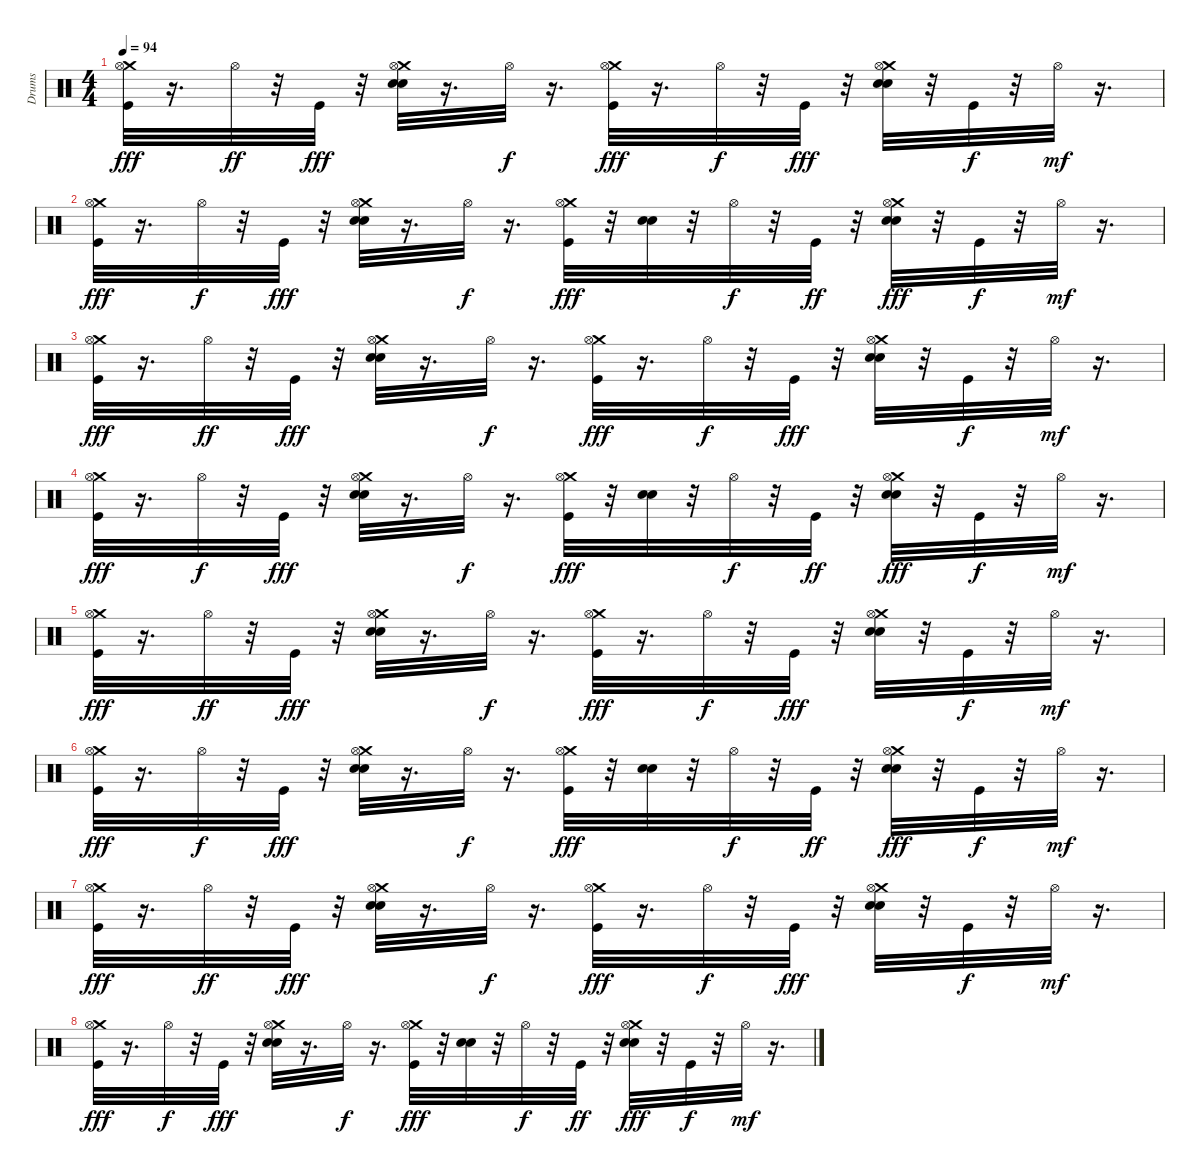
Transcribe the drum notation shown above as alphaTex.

\track ("Drums" "Drums") {instrument percussion}
\staff {score}
\articulation defaults
\ts (4 4)
\tempo 94
\clef neutral
\ks c
("Crash medium (hit)" "Hi-Hat (open)" "Kick (hit)").32{dy fff} r.16{d} "Hi-Hat (open)".32{dy ff} r.32 "Kick (hit)".32{dy fff} r.32 ("Crash medium (hit)" "Hi-Hat (open)" "Snare (hit) 2" "Electric Snare (hit)").32 r.16{d} "Hi-Hat (open)".32{dy f} r.16{d} ("Crash medium (hit)" "Hi-Hat (open)" "Kick (hit)").32{dy fff} r.16{d} "Hi-Hat (open)".32{dy f} r.32 "Kick (hit)".32{dy fff} r.32 ("Crash medium (hit)" "Hi-Hat (open)" "Snare (hit) 2" "Electric Snare (hit)").32 r.32 "Kick (hit)".32{dy f} r.32 "Hi-Hat (open)".32{dy mf} r.16{d} |
("Crash medium (hit)" "Hi-Hat (open)" "Kick (hit)").32{dy fff} r.16{d} "Hi-Hat (open)".32{dy f} r.32 "Kick (hit)".32{dy fff} r.32 ("Crash medium (hit)" "Hi-Hat (open)" "Snare (hit) 2" "Electric Snare (hit)").32 r.16{d} "Hi-Hat (open)".32{dy f} r.16{d} ("Crash medium (hit)" "Hi-Hat (open)" "Kick (hit)").32{dy fff} r.32 ("Snare (hit) 2" "Electric Snare (hit)").32 r.32 "Hi-Hat (open)".32{dy f} r.32 "Kick (hit)".32{dy ff} r.32 ("Crash medium (hit)" "Hi-Hat (open)" "Snare (hit) 2" "Electric Snare (hit)").32{dy fff} r.32 "Kick (hit)".32{dy f} r.32 "Hi-Hat (open)".32{dy mf} r.16{d} |
("Crash medium (hit)" "Hi-Hat (open)" "Kick (hit)").32{dy fff} r.16{d} "Hi-Hat (open)".32{dy ff} r.32 "Kick (hit)".32{dy fff} r.32 ("Crash medium (hit)" "Hi-Hat (open)" "Snare (hit) 2" "Electric Snare (hit)").32 r.16{d} "Hi-Hat (open)".32{dy f} r.16{d} ("Crash medium (hit)" "Hi-Hat (open)" "Kick (hit)").32{dy fff} r.16{d} "Hi-Hat (open)".32{dy f} r.32 "Kick (hit)".32{dy fff} r.32 ("Crash medium (hit)" "Hi-Hat (open)" "Snare (hit) 2" "Electric Snare (hit)").32 r.32 "Kick (hit)".32{dy f} r.32 "Hi-Hat (open)".32{dy mf} r.16{d} |
("Crash medium (hit)" "Hi-Hat (open)" "Kick (hit)").32{dy fff} r.16{d} "Hi-Hat (open)".32{dy f} r.32 "Kick (hit)".32{dy fff} r.32 ("Crash medium (hit)" "Hi-Hat (open)" "Snare (hit) 2" "Electric Snare (hit)").32 r.16{d} "Hi-Hat (open)".32{dy f} r.16{d} ("Crash medium (hit)" "Hi-Hat (open)" "Kick (hit)").32{dy fff} r.32 ("Snare (hit) 2" "Electric Snare (hit)").32 r.32 "Hi-Hat (open)".32{dy f} r.32 "Kick (hit)".32{dy ff} r.32 ("Crash medium (hit)" "Hi-Hat (open)" "Snare (hit) 2" "Electric Snare (hit)").32{dy fff} r.32 "Kick (hit)".32{dy f} r.32 "Hi-Hat (open)".32{dy mf} r.16{d} |
("Crash medium (hit)" "Hi-Hat (open)" "Kick (hit)").32{dy fff} r.16{d} "Hi-Hat (open)".32{dy ff} r.32 "Kick (hit)".32{dy fff} r.32 ("Crash medium (hit)" "Hi-Hat (open)" "Snare (hit) 2" "Electric Snare (hit)").32 r.16{d} "Hi-Hat (open)".32{dy f} r.16{d} ("Crash medium (hit)" "Hi-Hat (open)" "Kick (hit)").32{dy fff} r.16{d} "Hi-Hat (open)".32{dy f} r.32 "Kick (hit)".32{dy fff} r.32 ("Crash medium (hit)" "Hi-Hat (open)" "Snare (hit) 2" "Electric Snare (hit)").32 r.32 "Kick (hit)".32{dy f} r.32 "Hi-Hat (open)".32{dy mf} r.16{d} |
("Crash medium (hit)" "Hi-Hat (open)" "Kick (hit)").32{dy fff} r.16{d} "Hi-Hat (open)".32{dy f} r.32 "Kick (hit)".32{dy fff} r.32 ("Crash medium (hit)" "Hi-Hat (open)" "Snare (hit) 2" "Electric Snare (hit)").32 r.16{d} "Hi-Hat (open)".32{dy f} r.16{d} ("Crash medium (hit)" "Hi-Hat (open)" "Kick (hit)").32{dy fff} r.32 ("Snare (hit) 2" "Electric Snare (hit)").32 r.32 "Hi-Hat (open)".32{dy f} r.32 "Kick (hit)".32{dy ff} r.32 ("Crash medium (hit)" "Hi-Hat (open)" "Snare (hit) 2" "Electric Snare (hit)").32{dy fff} r.32 "Kick (hit)".32{dy f} r.32 "Hi-Hat (open)".32{dy mf} r.16{d} |
("Crash medium (hit)" "Hi-Hat (open)" "Kick (hit)").32{dy fff} r.16{d} "Hi-Hat (open)".32{dy ff} r.32 "Kick (hit)".32{dy fff} r.32 ("Crash medium (hit)" "Hi-Hat (open)" "Snare (hit) 2" "Electric Snare (hit)").32 r.16{d} "Hi-Hat (open)".32{dy f} r.16{d} ("Crash medium (hit)" "Hi-Hat (open)" "Kick (hit)").32{dy fff} r.16{d} "Hi-Hat (open)".32{dy f} r.32 "Kick (hit)".32{dy fff} r.32 ("Crash medium (hit)" "Hi-Hat (open)" "Snare (hit) 2" "Electric Snare (hit)").32 r.32 "Kick (hit)".32{dy f} r.32 "Hi-Hat (open)".32{dy mf} r.16{d} |
("Crash medium (hit)" "Hi-Hat (open)" "Kick (hit)").32{dy fff} r.16{d} "Hi-Hat (open)".32{dy f} r.32 "Kick (hit)".32{dy fff} r.32 ("Crash medium (hit)" "Hi-Hat (open)" "Snare (hit) 2" "Electric Snare (hit)").32 r.16{d} "Hi-Hat (open)".32{dy f} r.16{d} ("Crash medium (hit)" "Hi-Hat (open)" "Kick (hit)").32{dy fff} r.32 ("Snare (hit) 2" "Electric Snare (hit)").32 r.32 "Hi-Hat (open)".32{dy f} r.32 "Kick (hit)".32{dy ff} r.32 ("Crash medium (hit)" "Hi-Hat (open)" "Snare (hit) 2" "Electric Snare (hit)").32{dy fff} r.32 "Kick (hit)".32{dy f} r.32 "Hi-Hat (open)".32{dy mf} r.16{d}
